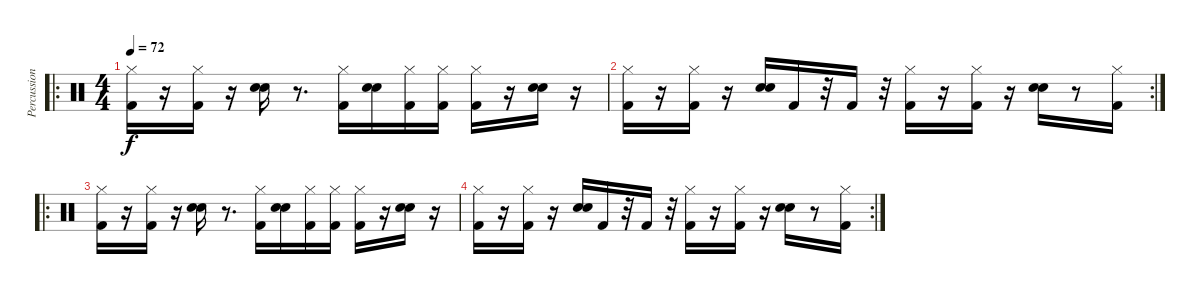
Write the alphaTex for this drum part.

\track ("Percussion" "Percussion") {instrument percussion}
\staff {score}
\articulation defaults
\ro
\ts (4 4)
\tempo 72
\clef neutral
\ks c
("Hi-Hat (closed)" "Kick (hit) 2").16{dy f} r.16 ("Hi-Hat (closed)" "Kick (hit) 2").16 r.16 ("Hand Clap (hit)" "Electric Snare (hit)").16 r.8{d} ("Hi-Hat (closed)" "Kick (hit) 2").16 ("Hand Clap (hit)" "Electric Snare (hit)").16 ("Hi-Hat (closed)" "Kick (hit) 2").16 ("Hi-Hat (closed)" "Kick (hit) 2").16 ("Hi-Hat (closed)" "Kick (hit) 2").16 r.16 ("Hand Clap (hit)" "Electric Snare (hit)").16 r.16 |
\rc 2
("Hi-Hat (closed)" "Kick (hit) 2").16 r.16 ("Hi-Hat (closed)" "Kick (hit) 2").16 r.16 ("Hand Clap (hit)" "Electric Snare (hit)").16 "Kick (hit) 2".16 r.32 "Kick (hit) 2".16 r.32 ("Hi-Hat (closed)" "Kick (hit) 2").16 r.16 ("Hi-Hat (closed)" "Kick (hit) 2").16 r.16 ("Hand Clap (hit)" "Electric Snare (hit)").16 r.8 ("Hi-Hat (closed)" "Kick (hit) 2").16 |
\ro
("Hi-Hat (closed)" "Kick (hit) 2").16 r.16 ("Hi-Hat (closed)" "Kick (hit) 2").16 r.16 ("Hand Clap (hit)" "Electric Snare (hit)").16 r.8{d} ("Hi-Hat (closed)" "Kick (hit) 2").16 ("Hand Clap (hit)" "Electric Snare (hit)").16 ("Hi-Hat (closed)" "Kick (hit) 2").16 ("Hi-Hat (closed)" "Kick (hit) 2").16 ("Hi-Hat (closed)" "Kick (hit) 2").16 r.16 ("Hand Clap (hit)" "Electric Snare (hit)").16 r.16 |
\rc 2
("Hi-Hat (closed)" "Kick (hit) 2").16 r.16 ("Hi-Hat (closed)" "Kick (hit) 2").16 r.16 ("Hand Clap (hit)" "Electric Snare (hit)").16 "Kick (hit) 2".16 r.32 "Kick (hit) 2".16 r.32 ("Hi-Hat (closed)" "Kick (hit) 2").16 r.16 ("Hi-Hat (closed)" "Kick (hit) 2").16 r.16 ("Hand Clap (hit)" "Electric Snare (hit)").16 r.8 ("Hi-Hat (closed)" "Kick (hit) 2").16
